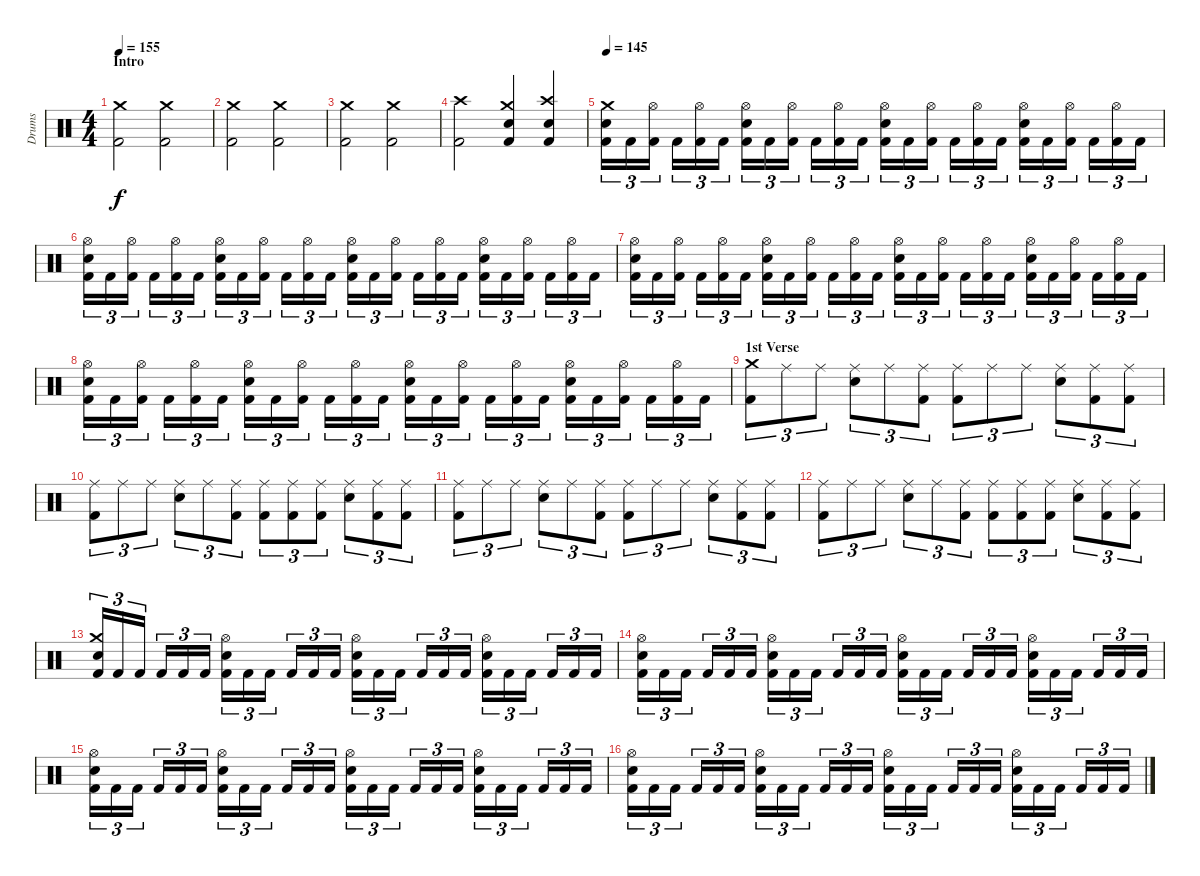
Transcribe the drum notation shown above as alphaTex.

\track ("Drums" "Drums") {instrument percussion}
\staff {score}
\articulation defaults
\ts (4 4)
\section ("" "Intro")
\tempo 155
\clef neutral
\ks c
("Kick (hit) 2" "Crash medium (hit)").2{dy f} ("Kick (hit) 2" "Crash medium (hit)").2 |
("Kick (hit) 2" "Crash medium (hit)").2 ("Kick (hit) 2" "Crash medium (hit)").2 |
("Kick (hit) 2" "Crash medium (hit)").2 ("Kick (hit) 2" "Crash medium (hit)").2 |
("Kick (hit) 2" "Crash high (hit)").2 ("Kick (hit) 2" "Electric Snare (hit)" "Crash medium (hit)").4 ("Kick (hit) 2" "Electric Snare (hit)" "Crash high (hit)").4 |
\tempo 145
("Kick (hit) 2" "Electric Snare (hit)" "Crash medium (hit)").16{tu (3 2)} "Kick (hit) 2".16{tu (3 2)} ("Kick (hit) 2" "Hi-Hat (open)").16{tu (3 2)} "Kick (hit) 2".16{tu (3 2)} ("Kick (hit) 2" "Hi-Hat (open)").16{tu (3 2)} "Kick (hit) 2".16{tu (3 2)} ("Kick (hit) 2" "Electric Snare (hit)" "Hi-Hat (open)").16{tu (3 2)} "Kick (hit) 2".16{tu (3 2)} ("Kick (hit) 2" "Hi-Hat (open)").16{tu (3 2)} "Kick (hit) 2".16{tu (3 2)} ("Kick (hit) 2" "Hi-Hat (open)").16{tu (3 2)} "Kick (hit) 2".16{tu (3 2)} ("Kick (hit) 2" "Electric Snare (hit)" "Hi-Hat (open)").16{tu (3 2)} "Kick (hit) 2".16{tu (3 2)} ("Kick (hit) 2" "Hi-Hat (open)").16{tu (3 2)} "Kick (hit) 2".16{tu (3 2)} ("Kick (hit) 2" "Hi-Hat (open)").16{tu (3 2)} "Kick (hit) 2".16{tu (3 2)} ("Kick (hit) 2" "Electric Snare (hit)" "Hi-Hat (open)").16{tu (3 2)} "Kick (hit) 2".16{tu (3 2)} ("Kick (hit) 2" "Hi-Hat (open)").16{tu (3 2)} "Kick (hit) 2".16{tu (3 2)} ("Kick (hit) 2" "Hi-Hat (open)").16{tu (3 2)} "Kick (hit) 2".16{tu (3 2)} |
("Kick (hit) 2" "Electric Snare (hit)" "Hi-Hat (open)").16{tu (3 2)} "Kick (hit) 2".16{tu (3 2)} ("Kick (hit) 2" "Hi-Hat (open)").16{tu (3 2)} "Kick (hit) 2".16{tu (3 2)} ("Kick (hit) 2" "Hi-Hat (open)").16{tu (3 2)} "Kick (hit) 2".16{tu (3 2)} ("Kick (hit) 2" "Electric Snare (hit)" "Hi-Hat (open)").16{tu (3 2)} "Kick (hit) 2".16{tu (3 2)} ("Kick (hit) 2" "Hi-Hat (open)").16{tu (3 2)} "Kick (hit) 2".16{tu (3 2)} ("Kick (hit) 2" "Hi-Hat (open)").16{tu (3 2)} "Kick (hit) 2".16{tu (3 2)} ("Kick (hit) 2" "Electric Snare (hit)" "Hi-Hat (open)").16{tu (3 2)} "Kick (hit) 2".16{tu (3 2)} ("Kick (hit) 2" "Hi-Hat (open)").16{tu (3 2)} "Kick (hit) 2".16{tu (3 2)} ("Kick (hit) 2" "Hi-Hat (open)").16{tu (3 2)} "Kick (hit) 2".16{tu (3 2)} ("Kick (hit) 2" "Electric Snare (hit)" "Hi-Hat (open)").16{tu (3 2)} "Kick (hit) 2".16{tu (3 2)} ("Kick (hit) 2" "Hi-Hat (open)").16{tu (3 2)} "Kick (hit) 2".16{tu (3 2)} ("Kick (hit) 2" "Hi-Hat (open)").16{tu (3 2)} "Kick (hit) 2".16{tu (3 2)} |
("Kick (hit) 2" "Electric Snare (hit)" "Hi-Hat (open)").16{tu (3 2)} "Kick (hit) 2".16{tu (3 2)} ("Kick (hit) 2" "Hi-Hat (open)").16{tu (3 2)} "Kick (hit) 2".16{tu (3 2)} ("Kick (hit) 2" "Hi-Hat (open)").16{tu (3 2)} "Kick (hit) 2".16{tu (3 2)} ("Kick (hit) 2" "Electric Snare (hit)" "Hi-Hat (open)").16{tu (3 2)} "Kick (hit) 2".16{tu (3 2)} ("Kick (hit) 2" "Hi-Hat (open)").16{tu (3 2)} "Kick (hit) 2".16{tu (3 2)} ("Kick (hit) 2" "Hi-Hat (open)").16{tu (3 2)} "Kick (hit) 2".16{tu (3 2)} ("Kick (hit) 2" "Electric Snare (hit)" "Hi-Hat (open)").16{tu (3 2)} "Kick (hit) 2".16{tu (3 2)} ("Kick (hit) 2" "Hi-Hat (open)").16{tu (3 2)} "Kick (hit) 2".16{tu (3 2)} ("Kick (hit) 2" "Hi-Hat (open)").16{tu (3 2)} "Kick (hit) 2".16{tu (3 2)} ("Kick (hit) 2" "Electric Snare (hit)" "Hi-Hat (open)").16{tu (3 2)} "Kick (hit) 2".16{tu (3 2)} ("Kick (hit) 2" "Hi-Hat (open)").16{tu (3 2)} "Kick (hit) 2".16{tu (3 2)} ("Kick (hit) 2" "Hi-Hat (open)").16{tu (3 2)} "Kick (hit) 2".16{tu (3 2)} |
("Kick (hit) 2" "Electric Snare (hit)" "Hi-Hat (open)").16{tu (3 2)} "Kick (hit) 2".16{tu (3 2)} ("Kick (hit) 2" "Hi-Hat (open)").16{tu (3 2)} "Kick (hit) 2".16{tu (3 2)} ("Kick (hit) 2" "Hi-Hat (open)").16{tu (3 2)} "Kick (hit) 2".16{tu (3 2)} ("Kick (hit) 2" "Electric Snare (hit)" "Hi-Hat (open)").16{tu (3 2)} "Kick (hit) 2".16{tu (3 2)} ("Kick (hit) 2" "Hi-Hat (open)").16{tu (3 2)} "Kick (hit) 2".16{tu (3 2)} ("Kick (hit) 2" "Hi-Hat (open)").16{tu (3 2)} "Kick (hit) 2".16{tu (3 2)} ("Kick (hit) 2" "Electric Snare (hit)" "Hi-Hat (open)").16{tu (3 2)} "Kick (hit) 2".16{tu (3 2)} ("Kick (hit) 2" "Hi-Hat (open)").16{tu (3 2)} "Kick (hit) 2".16{tu (3 2)} ("Kick (hit) 2" "Hi-Hat (open)").16{tu (3 2)} "Kick (hit) 2".16{tu (3 2)} ("Kick (hit) 2" "Electric Snare (hit)" "Hi-Hat (open)").16{tu (3 2)} "Kick (hit) 2".16{tu (3 2)} ("Kick (hit) 2" "Hi-Hat (open)").16{tu (3 2)} "Kick (hit) 2".16{tu (3 2)} ("Kick (hit) 2" "Hi-Hat (open)").16{tu (3 2)} "Kick (hit) 2".16{tu (3 2)} |
\section ("" "1st Verse")
("Kick (hit) 2" "Crash medium (hit)").8{tu (3 2)} "Ride (middle)".8{tu (3 2)} "Ride (middle)".8{tu (3 2)} ("Electric Snare (hit)" "Ride (middle)").8{tu (3 2)} "Ride (middle)".8{tu (3 2)} ("Kick (hit) 2" "Ride (middle)").8{tu (3 2)} ("Kick (hit) 2" "Ride (middle)").8{tu (3 2)} "Ride (middle)".8{tu (3 2)} "Ride (middle)".8{tu (3 2)} ("Electric Snare (hit)" "Ride (middle)").8{tu (3 2)} ("Kick (hit) 2" "Ride (middle)").8{tu (3 2)} ("Kick (hit) 2" "Ride (middle)").8{tu (3 2)} |
("Kick (hit) 2" "Ride (middle)").8{tu (3 2)} "Ride (middle)".8{tu (3 2)} "Ride (middle)".8{tu (3 2)} ("Electric Snare (hit)" "Ride (middle)").8{tu (3 2)} "Ride (middle)".8{tu (3 2)} ("Kick (hit) 2" "Ride (middle)").8{tu (3 2)} ("Kick (hit) 2" "Ride (middle)").8{tu (3 2)} ("Kick (hit) 2" "Ride (middle)").8{tu (3 2)} ("Kick (hit) 2" "Ride (middle)").8{tu (3 2)} ("Electric Snare (hit)" "Ride (middle)").8{tu (3 2)} ("Kick (hit) 2" "Ride (middle)").8{tu (3 2)} ("Kick (hit) 2" "Ride (middle)").8{tu (3 2)} |
("Kick (hit) 2" "Ride (middle)").8{tu (3 2)} "Ride (middle)".8{tu (3 2)} "Ride (middle)".8{tu (3 2)} ("Electric Snare (hit)" "Ride (middle)").8{tu (3 2)} "Ride (middle)".8{tu (3 2)} ("Kick (hit) 2" "Ride (middle)").8{tu (3 2)} ("Kick (hit) 2" "Ride (middle)").8{tu (3 2)} "Ride (middle)".8{tu (3 2)} "Ride (middle)".8{tu (3 2)} ("Electric Snare (hit)" "Ride (middle)").8{tu (3 2)} ("Kick (hit) 2" "Ride (middle)").8{tu (3 2)} ("Kick (hit) 2" "Ride (middle)").8{tu (3 2)} |
("Kick (hit) 2" "Ride (middle)").8{tu (3 2)} "Ride (middle)".8{tu (3 2)} "Ride (middle)".8{tu (3 2)} ("Electric Snare (hit)" "Ride (middle)").8{tu (3 2)} "Ride (middle)".8{tu (3 2)} ("Kick (hit) 2" "Ride (middle)").8{tu (3 2)} ("Kick (hit) 2" "Ride (middle)").8{tu (3 2)} ("Kick (hit) 2" "Ride (middle)").8{tu (3 2)} ("Kick (hit) 2" "Ride (middle)").8{tu (3 2)} ("Electric Snare (hit)" "Ride (middle)").8{tu (3 2)} ("Kick (hit) 2" "Ride (middle)").8{tu (3 2)} ("Kick (hit) 2" "Ride (middle)").8{tu (3 2)} |
("Kick (hit) 2" "Electric Snare (hit)" "Crash medium (hit)").16{tu (3 2)} "Kick (hit) 2".16{tu (3 2)} "Kick (hit) 2".16{tu (3 2)} "Kick (hit) 2".16{tu (3 2)} "Kick (hit) 2".16{tu (3 2)} "Kick (hit) 2".16{tu (3 2)} ("Kick (hit) 2" "Electric Snare (hit)" "Hi-Hat (open)").16{tu (3 2)} "Kick (hit) 2".16{tu (3 2)} "Kick (hit) 2".16{tu (3 2)} "Kick (hit) 2".16{tu (3 2)} "Kick (hit) 2".16{tu (3 2)} "Kick (hit) 2".16{tu (3 2)} ("Kick (hit) 2" "Electric Snare (hit)" "Hi-Hat (open)").16{tu (3 2)} "Kick (hit) 2".16{tu (3 2)} "Kick (hit) 2".16{tu (3 2)} "Kick (hit) 2".16{tu (3 2)} "Kick (hit) 2".16{tu (3 2)} "Kick (hit) 2".16{tu (3 2)} ("Kick (hit) 2" "Electric Snare (hit)" "Hi-Hat (open)").16{tu (3 2)} "Kick (hit) 2".16{tu (3 2)} "Kick (hit) 2".16{tu (3 2)} "Kick (hit) 2".16{tu (3 2)} "Kick (hit) 2".16{tu (3 2)} "Kick (hit) 2".16{tu (3 2)} |
("Kick (hit) 2" "Electric Snare (hit)" "Hi-Hat (open)").16{tu (3 2)} "Kick (hit) 2".16{tu (3 2)} "Kick (hit) 2".16{tu (3 2)} "Kick (hit) 2".16{tu (3 2)} "Kick (hit) 2".16{tu (3 2)} "Kick (hit) 2".16{tu (3 2)} ("Kick (hit) 2" "Electric Snare (hit)" "Hi-Hat (open)").16{tu (3 2)} "Kick (hit) 2".16{tu (3 2)} "Kick (hit) 2".16{tu (3 2)} "Kick (hit) 2".16{tu (3 2)} "Kick (hit) 2".16{tu (3 2)} "Kick (hit) 2".16{tu (3 2)} ("Kick (hit) 2" "Electric Snare (hit)" "Hi-Hat (open)").16{tu (3 2)} "Kick (hit) 2".16{tu (3 2)} "Kick (hit) 2".16{tu (3 2)} "Kick (hit) 2".16{tu (3 2)} "Kick (hit) 2".16{tu (3 2)} "Kick (hit) 2".16{tu (3 2)} ("Kick (hit) 2" "Electric Snare (hit)" "Hi-Hat (open)").16{tu (3 2)} "Kick (hit) 2".16{tu (3 2)} "Kick (hit) 2".16{tu (3 2)} "Kick (hit) 2".16{tu (3 2)} "Kick (hit) 2".16{tu (3 2)} "Kick (hit) 2".16{tu (3 2)} |
("Kick (hit) 2" "Electric Snare (hit)" "Hi-Hat (open)").16{tu (3 2)} "Kick (hit) 2".16{tu (3 2)} "Kick (hit) 2".16{tu (3 2)} "Kick (hit) 2".16{tu (3 2)} "Kick (hit) 2".16{tu (3 2)} "Kick (hit) 2".16{tu (3 2)} ("Kick (hit) 2" "Electric Snare (hit)" "Hi-Hat (open)").16{tu (3 2)} "Kick (hit) 2".16{tu (3 2)} "Kick (hit) 2".16{tu (3 2)} "Kick (hit) 2".16{tu (3 2)} "Kick (hit) 2".16{tu (3 2)} "Kick (hit) 2".16{tu (3 2)} ("Kick (hit) 2" "Electric Snare (hit)" "Hi-Hat (open)").16{tu (3 2)} "Kick (hit) 2".16{tu (3 2)} "Kick (hit) 2".16{tu (3 2)} "Kick (hit) 2".16{tu (3 2)} "Kick (hit) 2".16{tu (3 2)} "Kick (hit) 2".16{tu (3 2)} ("Kick (hit) 2" "Electric Snare (hit)" "Hi-Hat (open)").16{tu (3 2)} "Kick (hit) 2".16{tu (3 2)} "Kick (hit) 2".16{tu (3 2)} "Kick (hit) 2".16{tu (3 2)} "Kick (hit) 2".16{tu (3 2)} "Kick (hit) 2".16{tu (3 2)} |
("Kick (hit) 2" "Electric Snare (hit)" "Hi-Hat (open)").16{tu (3 2)} "Kick (hit) 2".16{tu (3 2)} "Kick (hit) 2".16{tu (3 2)} "Kick (hit) 2".16{tu (3 2)} "Kick (hit) 2".16{tu (3 2)} "Kick (hit) 2".16{tu (3 2)} ("Kick (hit) 2" "Electric Snare (hit)" "Hi-Hat (open)").16{tu (3 2)} "Kick (hit) 2".16{tu (3 2)} "Kick (hit) 2".16{tu (3 2)} "Kick (hit) 2".16{tu (3 2)} "Kick (hit) 2".16{tu (3 2)} "Kick (hit) 2".16{tu (3 2)} ("Kick (hit) 2" "Electric Snare (hit)" "Hi-Hat (open)").16{tu (3 2)} "Kick (hit) 2".16{tu (3 2)} "Kick (hit) 2".16{tu (3 2)} "Kick (hit) 2".16{tu (3 2)} "Kick (hit) 2".16{tu (3 2)} "Kick (hit) 2".16{tu (3 2)} ("Kick (hit) 2" "Electric Snare (hit)" "Hi-Hat (open)").16{tu (3 2)} "Kick (hit) 2".16{tu (3 2)} "Kick (hit) 2".16{tu (3 2)} "Kick (hit) 2".16{tu (3 2)} "Kick (hit) 2".16{tu (3 2)} "Kick (hit) 2".16{tu (3 2)}
